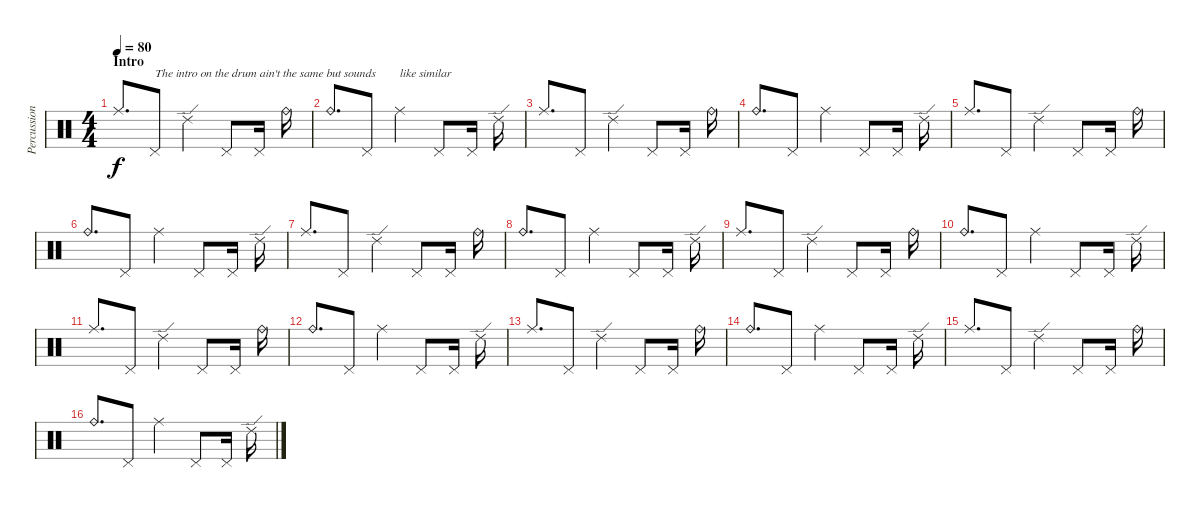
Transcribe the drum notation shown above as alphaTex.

\track ("Percussion" "Percussion") {instrument percussion}
\staff {score}
\articulation defaults
\ts (4 4)
\section ("" "Intro")
\tempo 80
\clef neutral
\ks c "Ride (middle)".8{d dy f} "Pedal Hi-Hat (hit)".8{txt "The intro on the drum ain't the same but sounds "} "Ride (edge) 2".4 "Pedal Hi-Hat (hit)".8 "Pedal Hi-Hat (hit)".16 "Ride (bell)".16
|
"Ride (bell)".8{d} "Pedal Hi-Hat (hit)".8 "Ride (middle)".4{txt "like similar"} "Pedal Hi-Hat (hit)".8 "Pedal Hi-Hat (hit)".16 "Ride (edge) 2".16 |
"Ride (middle)".8{d} "Pedal Hi-Hat (hit)".8 "Ride (edge) 2".4 "Pedal Hi-Hat (hit)".8 "Pedal Hi-Hat (hit)".16 "Ride (bell)".16 |
"Ride (bell)".8{d} "Pedal Hi-Hat (hit)".8 "Ride (middle)".4 "Pedal Hi-Hat (hit)".8 "Pedal Hi-Hat (hit)".16 "Ride (edge) 2".16 |
"Ride (middle)".8{d} "Pedal Hi-Hat (hit)".8 "Ride (edge) 2".4 "Pedal Hi-Hat (hit)".8 "Pedal Hi-Hat (hit)".16 "Ride (bell)".16 |
"Ride (bell)".8{d} "Pedal Hi-Hat (hit)".8 "Ride (middle)".4 "Pedal Hi-Hat (hit)".8 "Pedal Hi-Hat (hit)".16 "Ride (edge) 2".16 |
"Ride (middle)".8{d} "Pedal Hi-Hat (hit)".8 "Ride (edge) 2".4 "Pedal Hi-Hat (hit)".8 "Pedal Hi-Hat (hit)".16 "Ride (bell)".16 |
"Ride (bell)".8{d} "Pedal Hi-Hat (hit)".8 "Ride (middle)".4 "Pedal Hi-Hat (hit)".8 "Pedal Hi-Hat (hit)".16 "Ride (edge) 2".16 |
"Ride (middle)".8{d} "Pedal Hi-Hat (hit)".8 "Ride (edge) 2".4 "Pedal Hi-Hat (hit)".8 "Pedal Hi-Hat (hit)".16 "Ride (bell)".16 |
"Ride (bell)".8{d} "Pedal Hi-Hat (hit)".8 "Ride (middle)".4 "Pedal Hi-Hat (hit)".8 "Pedal Hi-Hat (hit)".16 "Ride (edge) 2".16 |
"Ride (middle)".8{d} "Pedal Hi-Hat (hit)".8 "Ride (edge) 2".4 "Pedal Hi-Hat (hit)".8 "Pedal Hi-Hat (hit)".16 "Ride (bell)".16 |
"Ride (bell)".8{d} "Pedal Hi-Hat (hit)".8 "Ride (middle)".4 "Pedal Hi-Hat (hit)".8 "Pedal Hi-Hat (hit)".16 "Ride (edge) 2".16 |
"Ride (middle)".8{d} "Pedal Hi-Hat (hit)".8 "Ride (edge) 2".4 "Pedal Hi-Hat (hit)".8 "Pedal Hi-Hat (hit)".16 "Ride (bell)".16 |
"Ride (bell)".8{d} "Pedal Hi-Hat (hit)".8 "Ride (middle)".4 "Pedal Hi-Hat (hit)".8 "Pedal Hi-Hat (hit)".16 "Ride (edge) 2".16 |
"Ride (middle)".8{d} "Pedal Hi-Hat (hit)".8 "Ride (edge) 2".4 "Pedal Hi-Hat (hit)".8 "Pedal Hi-Hat (hit)".16 "Ride (bell)".16 |
"Ride (bell)".8{d} "Pedal Hi-Hat (hit)".8 "Ride (middle)".4 "Pedal Hi-Hat (hit)".8 "Pedal Hi-Hat (hit)".16 "Ride (edge) 2".16
